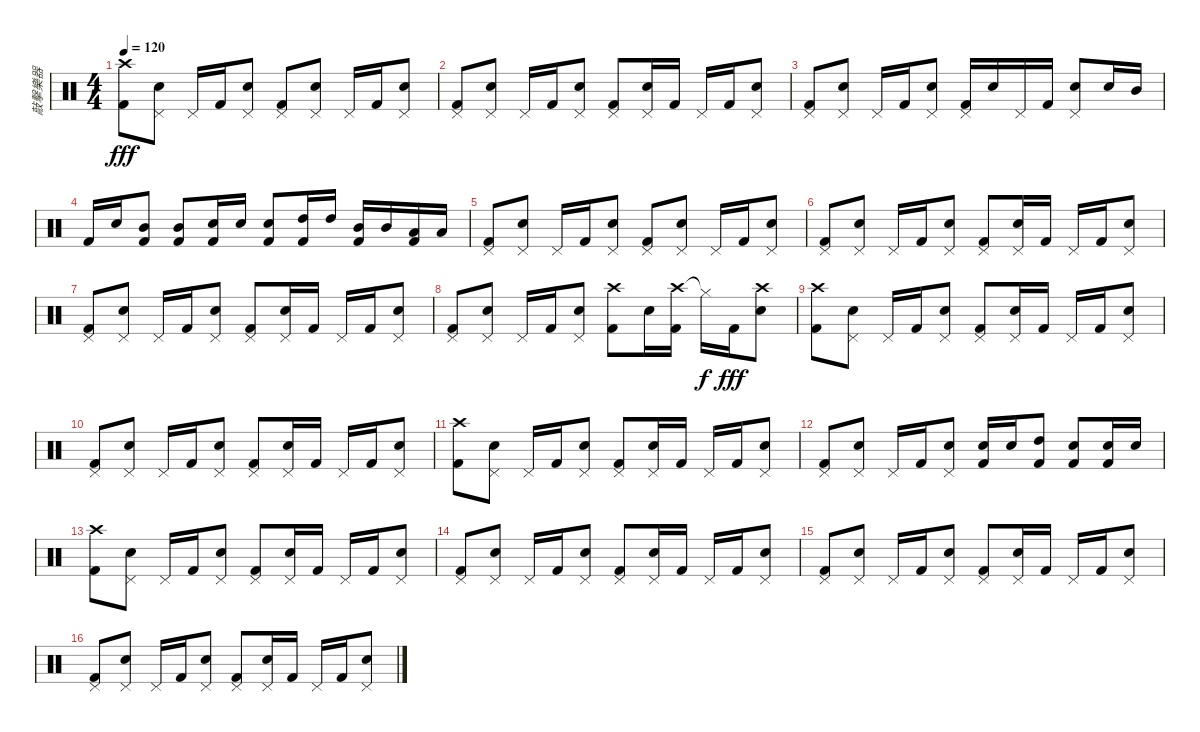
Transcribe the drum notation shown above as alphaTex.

\track ("敲擊樂器" "敲擊樂器") {instrument percussion}
\staff {score}
\articulation defaults
\ts (4 4)
\tempo 120
\clef neutral
\ks c
("Crash high (hit)" "Kick (hit) 2").8{dy fff} ("Pedal Hi-Hat (hit)" "Snare (hit) 2").8 "Pedal Hi-Hat (hit)".16 "Kick (hit) 2".16 ("Pedal Hi-Hat (hit)" "Snare (hit) 2").8 ("Pedal Hi-Hat (hit)" "Kick (hit) 2").8 ("Pedal Hi-Hat (hit)" "Snare (hit) 2").8 "Pedal Hi-Hat (hit)".16 "Kick (hit) 2".16 ("Pedal Hi-Hat (hit)" "Snare (hit) 2").8 |
("Pedal Hi-Hat (hit)" "Kick (hit) 2").8 ("Pedal Hi-Hat (hit)" "Snare (hit) 2").8 "Pedal Hi-Hat (hit)".16 "Kick (hit) 2".16 ("Pedal Hi-Hat (hit)" "Snare (hit) 2").8 ("Pedal Hi-Hat (hit)" "Kick (hit) 2").8 ("Pedal Hi-Hat (hit)" "Snare (hit) 2").16 "Kick (hit) 2".16 "Pedal Hi-Hat (hit)".16 "Kick (hit) 2".16 ("Pedal Hi-Hat (hit)" "Snare (hit) 2").8 |
("Pedal Hi-Hat (hit)" "Kick (hit) 2").8 ("Pedal Hi-Hat (hit)" "Snare (hit) 2").8 "Pedal Hi-Hat (hit)".16 "Kick (hit) 2".16 ("Pedal Hi-Hat (hit)" "Snare (hit) 2").8 ("Pedal Hi-Hat (hit)" "Kick (hit) 2").16 "Snare (hit) 2".16 "Pedal Hi-Hat (hit)".16 "Kick (hit) 2".16 ("Pedal Hi-Hat (hit)" "Snare (hit) 2").8 "Snare (hit) 2".16 "Mid Tom (hit)".16 |
"Kick (hit) 2".16 "Snare (hit) 2".16 ("Mid Tom (hit)" "Kick (hit) 2").8 ("Mid Tom (hit)" "Kick (hit) 2").8 ("Snare (hit) 2" "Kick (hit) 2").16 "Snare (hit) 2".16 ("Snare (hit) 2" "Kick (hit) 2").8 ("High Tom (hit)" "Kick (hit) 2").16 "High Tom (hit)".16 ("Mid Tom (hit)" "Kick (hit) 2").16 "Mid Tom (hit)".16 ("Low Tom (hit)" "Kick (hit) 2").16 "Low Tom (hit)".16 |
("Pedal Hi-Hat (hit)" "Kick (hit) 2").8 ("Pedal Hi-Hat (hit)" "Snare (hit) 2").8 "Pedal Hi-Hat (hit)".16 "Kick (hit) 2".16 ("Pedal Hi-Hat (hit)" "Snare (hit) 2").8 ("Pedal Hi-Hat (hit)" "Kick (hit) 2").8 ("Pedal Hi-Hat (hit)" "Snare (hit) 2").8 "Pedal Hi-Hat (hit)".16 "Kick (hit) 2".16 ("Pedal Hi-Hat (hit)" "Snare (hit) 2").8 |
("Pedal Hi-Hat (hit)" "Kick (hit) 2").8 ("Pedal Hi-Hat (hit)" "Snare (hit) 2").8 "Pedal Hi-Hat (hit)".16 "Kick (hit) 2".16 ("Pedal Hi-Hat (hit)" "Snare (hit) 2").8 ("Pedal Hi-Hat (hit)" "Kick (hit) 2").8 ("Pedal Hi-Hat (hit)" "Snare (hit) 2").16 "Kick (hit) 2".16 "Pedal Hi-Hat (hit)".16 "Kick (hit) 2".16 ("Pedal Hi-Hat (hit)" "Snare (hit) 2").8 |
("Pedal Hi-Hat (hit)" "Kick (hit) 2").8 ("Pedal Hi-Hat (hit)" "Snare (hit) 2").8 "Pedal Hi-Hat (hit)".16 "Kick (hit) 2".16 ("Pedal Hi-Hat (hit)" "Snare (hit) 2").8 ("Pedal Hi-Hat (hit)" "Kick (hit) 2").8 ("Pedal Hi-Hat (hit)" "Snare (hit) 2").16 "Kick (hit) 2".16 "Pedal Hi-Hat (hit)".16 "Kick (hit) 2".16 ("Pedal Hi-Hat (hit)" "Snare (hit) 2").8 |
("Pedal Hi-Hat (hit)" "Kick (hit) 2").8 ("Pedal Hi-Hat (hit)" "Snare (hit) 2").8 "Pedal Hi-Hat (hit)".16 "Kick (hit) 2".16 ("Pedal Hi-Hat (hit)" "Snare (hit) 2").8 ("Crash high (hit)" "Kick (hit) 2").8 "Snare (hit) 2".16 ("Crash high (hit)" "Kick (hit) 2").16 "Hi-Hat (closed)"{t}.16{dy f} "Kick (hit) 2".16{dy fff} ("Crash high (hit)" "Snare (hit) 2").8 |
("Crash high (hit)" "Kick (hit) 2").8 ("Pedal Hi-Hat (hit)" "Snare (hit) 2").8 "Pedal Hi-Hat (hit)".16 "Kick (hit) 2".16 ("Pedal Hi-Hat (hit)" "Snare (hit) 2").8 ("Pedal Hi-Hat (hit)" "Kick (hit) 2").8 ("Pedal Hi-Hat (hit)" "Snare (hit) 2").16 "Kick (hit) 2".16 "Pedal Hi-Hat (hit)".16 "Kick (hit) 2".16 ("Pedal Hi-Hat (hit)" "Snare (hit) 2").8 |
("Pedal Hi-Hat (hit)" "Kick (hit) 2").8 ("Pedal Hi-Hat (hit)" "Snare (hit) 2").8 "Pedal Hi-Hat (hit)".16 "Kick (hit) 2".16 ("Pedal Hi-Hat (hit)" "Snare (hit) 2").8 ("Pedal Hi-Hat (hit)" "Kick (hit) 2").8 ("Pedal Hi-Hat (hit)" "Snare (hit) 2").16 "Kick (hit) 2".16 "Pedal Hi-Hat (hit)".16 "Kick (hit) 2".16 ("Pedal Hi-Hat (hit)" "Snare (hit) 2").8 |
("Crash high (hit)" "Kick (hit) 2").8 ("Pedal Hi-Hat (hit)" "Snare (hit) 2").8 "Pedal Hi-Hat (hit)".16 "Kick (hit) 2".16 ("Pedal Hi-Hat (hit)" "Snare (hit) 2").8 ("Pedal Hi-Hat (hit)" "Kick (hit) 2").8 ("Pedal Hi-Hat (hit)" "Snare (hit) 2").16 "Kick (hit) 2".16 "Pedal Hi-Hat (hit)".16 "Kick (hit) 2".16 ("Pedal Hi-Hat (hit)" "Snare (hit) 2").8 |
("Pedal Hi-Hat (hit)" "Kick (hit) 2").8 ("Pedal Hi-Hat (hit)" "Snare (hit) 2").8 "Pedal Hi-Hat (hit)".16 "Kick (hit) 2".16 ("Pedal Hi-Hat (hit)" "Snare (hit) 2").8 ("Snare (hit) 2" "Kick (hit) 2").16 "Snare (hit) 2".16 ("High Tom (hit)" "Kick (hit) 2").8 ("Snare (hit) 2" "Kick (hit) 2").8 ("Snare (hit) 2" "Kick (hit) 2").16 "Snare (hit) 2".16 |
("Crash high (hit)" "Kick (hit) 2").8 ("Pedal Hi-Hat (hit)" "Snare (hit) 2").8 "Pedal Hi-Hat (hit)".16 "Kick (hit) 2".16 ("Pedal Hi-Hat (hit)" "Snare (hit) 2").8 ("Pedal Hi-Hat (hit)" "Kick (hit) 2").8 ("Pedal Hi-Hat (hit)" "Snare (hit) 2").16 "Kick (hit) 2".16 "Pedal Hi-Hat (hit)".16 "Kick (hit) 2".16 ("Pedal Hi-Hat (hit)" "Snare (hit) 2").8 |
("Pedal Hi-Hat (hit)" "Kick (hit) 2").8 ("Pedal Hi-Hat (hit)" "Snare (hit) 2").8 "Pedal Hi-Hat (hit)".16 "Kick (hit) 2".16 ("Pedal Hi-Hat (hit)" "Snare (hit) 2").8 ("Pedal Hi-Hat (hit)" "Kick (hit) 2").8 ("Pedal Hi-Hat (hit)" "Snare (hit) 2").16 "Kick (hit) 2".16 "Pedal Hi-Hat (hit)".16 "Kick (hit) 2".16 ("Pedal Hi-Hat (hit)" "Snare (hit) 2").8 |
("Pedal Hi-Hat (hit)" "Kick (hit) 2").8 ("Pedal Hi-Hat (hit)" "Snare (hit) 2").8 "Pedal Hi-Hat (hit)".16 "Kick (hit) 2".16 ("Pedal Hi-Hat (hit)" "Snare (hit) 2").8 ("Pedal Hi-Hat (hit)" "Kick (hit) 2").8 ("Pedal Hi-Hat (hit)" "Snare (hit) 2").16 "Kick (hit) 2".16 "Pedal Hi-Hat (hit)".16 "Kick (hit) 2".16 ("Pedal Hi-Hat (hit)" "Snare (hit) 2").8 |
("Pedal Hi-Hat (hit)" "Kick (hit) 2").8 ("Pedal Hi-Hat (hit)" "Snare (hit) 2").8 "Pedal Hi-Hat (hit)".16 "Kick (hit) 2".16 ("Pedal Hi-Hat (hit)" "Snare (hit) 2").8 ("Pedal Hi-Hat (hit)" "Kick (hit) 2").8 ("Pedal Hi-Hat (hit)" "Snare (hit) 2").16 "Kick (hit) 2".16 "Pedal Hi-Hat (hit)".16 "Kick (hit) 2".16 ("Pedal Hi-Hat (hit)" "Snare (hit) 2").8
